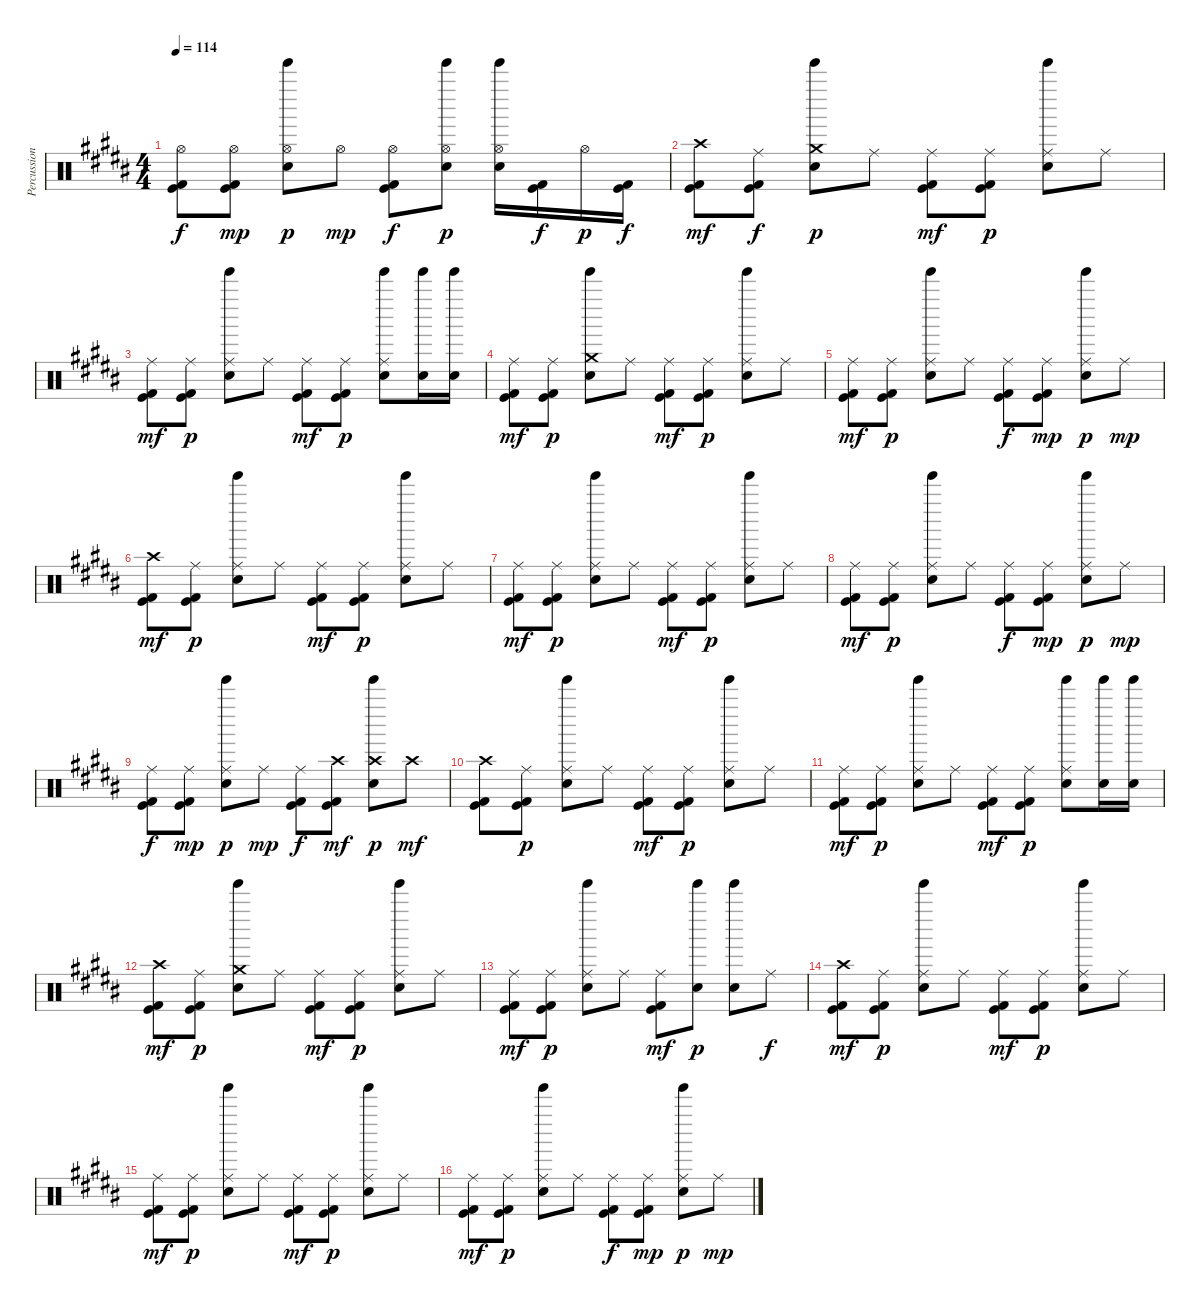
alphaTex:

\track ("Percussion" "Percussion") {instrument percussion}
\staff {score}
\articulation defaults
\ts (4 4)
\tempo 114
\clef neutral
\ks g#minor
("Hi-Hat (open)" "Kick (hit)" "Kick (hit) 2").8{dy f} ("Hi-Hat (open)" "Kick (hit)" "Kick (hit) 2").8{dy mp} ("Hi-Hat (open)" "Electric Snare (hit)" "Tinkle Bell (hit)").8{dy p} "Hi-Hat (open)".8{dy mp} ("Hi-Hat (open)" "Kick (hit)" "Kick (hit) 2").8{dy f} ("Hi-Hat (open)" "Electric Snare (hit)" "Tinkle Bell (hit)").8{dy p} ("Hi-Hat (open)" "Electric Snare (hit)" "Tinkle Bell (hit)").16 ("Kick (hit)" "Kick (hit) 2").16{dy f} "Hi-Hat (open)".16{dy p} ("Kick (hit)" "Kick (hit) 2").16{dy f} |
("Crash high (hit)" "Kick (hit)" "Kick (hit) 2").8{dy mf} ("Ride (middle)" "Kick (hit)" "Kick (hit) 2").8{dy f} ("Crash medium (hit)" "Electric Snare (hit)" "Tinkle Bell (hit)").8{dy p} "Ride (middle)".8 ("Ride (middle)" "Kick (hit)" "Kick (hit) 2").8{dy mf} ("Ride (middle)" "Kick (hit)" "Kick (hit) 2").8{dy p} ("Ride (middle)" "Electric Snare (hit)" "Tinkle Bell (hit)").8 "Ride (middle)".8 |
("Ride (middle)" "Kick (hit)" "Kick (hit) 2").8{dy mf} ("Ride (middle)" "Kick (hit)" "Kick (hit) 2").8{dy p} ("Ride (middle)" "Electric Snare (hit)" "Tinkle Bell (hit)").8 "Ride (middle)".8 ("Ride (middle)" "Kick (hit)" "Kick (hit) 2").8{dy mf} ("Ride (middle)" "Kick (hit)" "Kick (hit) 2").8{dy p} ("Ride (middle)" "Electric Snare (hit)" "Tinkle Bell (hit)").8 ("Electric Snare (hit)" "Tinkle Bell (hit)").16 ("Electric Snare (hit)" "Tinkle Bell (hit)").16 |
("Ride (middle)" "Kick (hit)" "Kick (hit) 2").8{dy mf} ("Ride (middle)" "Kick (hit)" "Kick (hit) 2").8{dy p} ("Crash medium (hit)" "Electric Snare (hit)" "Tinkle Bell (hit)").8 "Ride (middle)".8 ("Ride (middle)" "Kick (hit)" "Kick (hit) 2").8{dy mf} ("Ride (middle)" "Kick (hit)" "Kick (hit) 2").8{dy p} ("Ride (middle)" "Electric Snare (hit)" "Tinkle Bell (hit)").8 "Ride (middle)".8 |
("Ride (middle)" "Kick (hit)" "Kick (hit) 2").8{dy mf} ("Ride (middle)" "Kick (hit)" "Kick (hit) 2").8{dy p} ("Ride (middle)" "Electric Snare (hit)" "Tinkle Bell (hit)").8 "Ride (middle)".8 ("Ride (middle)" "Kick (hit)" "Kick (hit) 2").8{dy f} ("Ride (middle)" "Kick (hit)" "Kick (hit) 2").8{dy mp} ("Ride (middle)" "Electric Snare (hit)" "Tinkle Bell (hit)").8{dy p} "Ride (middle)".8{dy mp} |
("Crash high (hit)" "Kick (hit)" "Kick (hit) 2").8{dy mf} ("Ride (middle)" "Kick (hit)" "Kick (hit) 2").8{dy p} ("Ride (middle)" "Electric Snare (hit)" "Tinkle Bell (hit)").8 "Ride (middle)".8 ("Ride (middle)" "Kick (hit)" "Kick (hit) 2").8{dy mf} ("Ride (middle)" "Kick (hit)" "Kick (hit) 2").8{dy p} ("Ride (middle)" "Electric Snare (hit)" "Tinkle Bell (hit)").8 "Ride (middle)".8 |
("Ride (middle)" "Kick (hit)" "Kick (hit) 2").8{dy mf} ("Ride (middle)" "Kick (hit)" "Kick (hit) 2").8{dy p} ("Ride (middle)" "Electric Snare (hit)" "Tinkle Bell (hit)").8 "Ride (middle)".8 ("Ride (middle)" "Kick (hit)" "Kick (hit) 2").8{dy mf} ("Ride (middle)" "Kick (hit)" "Kick (hit) 2").8{dy p} ("Ride (middle)" "Electric Snare (hit)" "Tinkle Bell (hit)").8 "Ride (middle)".8 |
("Ride (middle)" "Kick (hit)" "Kick (hit) 2").8{dy mf} ("Ride (middle)" "Kick (hit)" "Kick (hit) 2").8{dy p} ("Ride (middle)" "Electric Snare (hit)" "Tinkle Bell (hit)").8 "Ride (middle)".8 ("Ride (middle)" "Kick (hit)" "Kick (hit) 2").8{dy f} ("Ride (middle)" "Kick (hit)" "Kick (hit) 2").8{dy mp} ("Ride (middle)" "Electric Snare (hit)" "Tinkle Bell (hit)").8{dy p} "Ride (middle)".8{dy mp} |
("Ride (middle)" "Kick (hit)" "Kick (hit) 2").8{dy f} ("Ride (middle)" "Kick (hit)" "Kick (hit) 2").8{dy mp} ("Ride (middle)" "Electric Snare (hit)" "Tinkle Bell (hit)").8{dy p} "Ride (middle)".8{dy mp} ("Ride (middle)" "Kick (hit)" "Kick (hit) 2").8{dy f} ("Crash high (hit)" "Kick (hit)" "Kick (hit) 2").8{dy mf} ("Crash high (hit)" "Electric Snare (hit)" "Tinkle Bell (hit)").8{dy p} "Crash high (hit)".8{dy mf} |
("Crash high (hit)" "Kick (hit)" "Kick (hit) 2").8{volume 9} ("Ride (middle)" "Kick (hit)" "Kick (hit) 2").8{dy p} ("Ride (middle)" "Electric Snare (hit)" "Tinkle Bell (hit)").8 "Ride (middle)".8 ("Ride (middle)" "Kick (hit)" "Kick (hit) 2").8{dy mf} ("Ride (middle)" "Kick (hit)" "Kick (hit) 2").8{dy p} ("Ride (middle)" "Electric Snare (hit)" "Tinkle Bell (hit)").8 "Ride (middle)".8 |
("Ride (middle)" "Kick (hit)" "Kick (hit) 2").8{dy mf} ("Ride (middle)" "Kick (hit)" "Kick (hit) 2").8{dy p} ("Ride (middle)" "Electric Snare (hit)" "Tinkle Bell (hit)").8 "Ride (middle)".8 ("Ride (middle)" "Kick (hit)" "Kick (hit) 2").8{dy mf} ("Ride (middle)" "Kick (hit)" "Kick (hit) 2").8{dy p} ("Ride (middle)" "Electric Snare (hit)" "Tinkle Bell (hit)").8 ("Electric Snare (hit)" "Tinkle Bell (hit)").16 ("Electric Snare (hit)" "Tinkle Bell (hit)").16 |
("Crash high (hit)" "Kick (hit)" "Kick (hit) 2").8{dy mf} ("Ride (middle)" "Kick (hit)" "Kick (hit) 2").8{dy p} ("Crash medium (hit)" "Electric Snare (hit)" "Tinkle Bell (hit)").8 "Ride (middle)".8 ("Ride (middle)" "Kick (hit)" "Kick (hit) 2").8{dy mf} ("Ride (middle)" "Kick (hit)" "Kick (hit) 2").8{dy p} ("Ride (middle)" "Electric Snare (hit)" "Tinkle Bell (hit)").8 "Ride (middle)".8 |
("Ride (middle)" "Kick (hit)" "Kick (hit) 2").8{dy mf} ("Ride (middle)" "Kick (hit)" "Kick (hit) 2").8{dy p} ("Ride (middle)" "Electric Snare (hit)" "Tinkle Bell (hit)").8 "Ride (middle)".8 ("Ride (middle)" "Kick (hit)" "Kick (hit) 2").8{dy mf} ("Electric Snare (hit)" "Tinkle Bell (hit)").8{dy p} ("Electric Snare (hit)" "Tinkle Bell (hit)").8 "Ride (middle)".8{dy f} |
("Crash high (hit)" "Kick (hit)" "Kick (hit) 2").8{dy mf volume 0} ("Ride (middle)" "Kick (hit)" "Kick (hit) 2").8{dy p} ("Ride (middle)" "Electric Snare (hit)" "Tinkle Bell (hit)").8 "Ride (middle)".8 ("Ride (middle)" "Kick (hit)" "Kick (hit) 2").8{dy mf} ("Ride (middle)" "Kick (hit)" "Kick (hit) 2").8{dy p} ("Ride (middle)" "Electric Snare (hit)" "Tinkle Bell (hit)").8 "Ride (middle)".8 |
("Ride (middle)" "Kick (hit)" "Kick (hit) 2").8{dy mf} ("Ride (middle)" "Kick (hit)" "Kick (hit) 2").8{dy p} ("Ride (middle)" "Electric Snare (hit)" "Tinkle Bell (hit)").8 "Ride (middle)".8 ("Ride (middle)" "Kick (hit)" "Kick (hit) 2").8{dy mf} ("Ride (middle)" "Kick (hit)" "Kick (hit) 2").8{dy p} ("Ride (middle)" "Electric Snare (hit)" "Tinkle Bell (hit)").8 "Ride (middle)".8 |
("Ride (middle)" "Kick (hit)" "Kick (hit) 2").8{dy mf} ("Ride (middle)" "Kick (hit)" "Kick (hit) 2").8{dy p} ("Ride (middle)" "Electric Snare (hit)" "Tinkle Bell (hit)").8 "Ride (middle)".8 ("Ride (middle)" "Kick (hit)" "Kick (hit) 2").8{dy f} ("Ride (middle)" "Kick (hit)" "Kick (hit) 2").8{dy mp} ("Ride (middle)" "Electric Snare (hit)" "Tinkle Bell (hit)").8{dy p} "Ride (middle)".8{dy mp}
